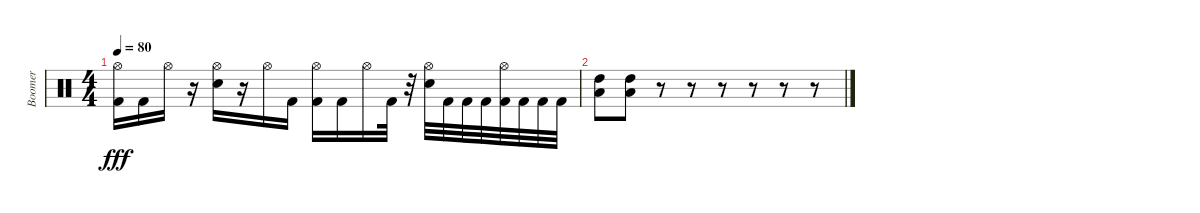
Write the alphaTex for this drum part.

\track ("Boomer" "Boomer") {instrument percussion}
\staff {score}
\articulation defaults
\ts (4 4)
\tempo 80
\clef neutral
\ks c
("Hi-Hat (open)" "Kick (hit) 2").16{dy fff} "Kick (hit) 2".16 "Hi-Hat (open)".16 r.16 ("Hi-Hat (open)" "Electric Snare (hit)").16 r.16 "Hi-Hat (open)".16 "Kick (hit) 2".16 ("Hi-Hat (open)" "Kick (hit) 2").16 "Kick (hit) 2".16 "Hi-Hat (open)".16 "Kick (hit) 2".32 r.32 ("Hi-Hat (open)" "Electric Snare (hit)").32 "Kick (hit) 2".32 "Kick (hit) 2".32 "Kick (hit) 2".32 ("Hi-Hat (open)" "Kick (hit) 2").32 "Kick (hit) 2".32 "Kick (hit) 2".32 "Kick (hit) 2".32 |
("High Tom (hit)" "Low Tom (hit)").8 ("High Tom (hit)" "Low Tom (hit)").8 r.8 r.8 r.8 r.8 r.8 r.8
